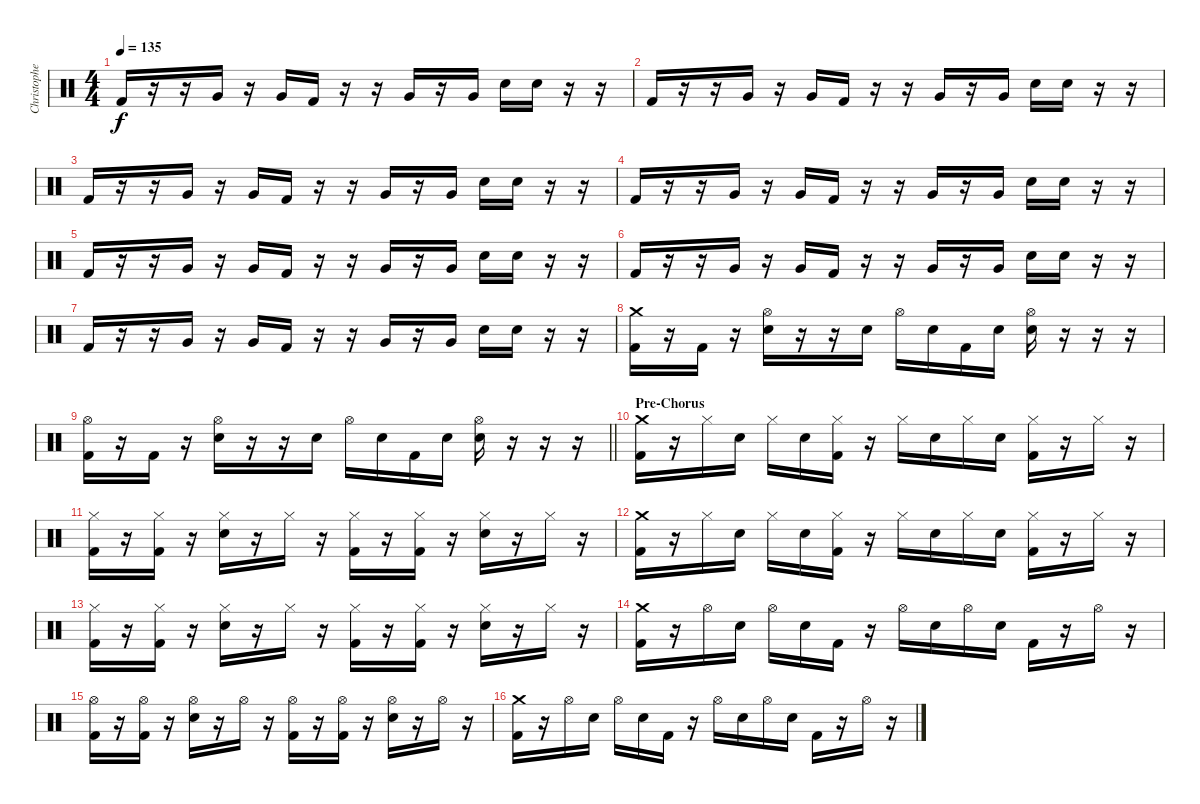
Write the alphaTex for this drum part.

\track ("Christopher - Drums" "Christophe") {instrument percussion}
\staff {score}
\articulation defaults
\ts (4 4)
\tempo 135
\clef neutral
\ks c "Kick (hit) 2".16{dy f}
r.16 r.16 "Very Low Tom (hit)".16 r.16 "Very Low Tom (hit)".16 "Kick (hit) 2".16 r.16 r.16 "Very Low Tom (hit)".16 r.16 "Very Low Tom (hit)".16 "Electric Snare (hit)".16 "Electric Snare (hit)".16 r.16 r.16 |
"Kick (hit) 2".16 r.16 r.16 "Very Low Tom (hit)".16 r.16 "Very Low Tom (hit)".16 "Kick (hit) 2".16 r.16 r.16 "Very Low Tom (hit)".16 r.16 "Very Low Tom (hit)".16 "Electric Snare (hit)".16 "Electric Snare (hit)".16 r.16 r.16 |
"Kick (hit) 2".16 r.16 r.16 "Very Low Tom (hit)".16 r.16 "Very Low Tom (hit)".16 "Kick (hit) 2".16 r.16 r.16 "Very Low Tom (hit)".16 r.16 "Very Low Tom (hit)".16 "Electric Snare (hit)".16 "Electric Snare (hit)".16 r.16 r.16 |
"Kick (hit) 2".16 r.16 r.16 "Very Low Tom (hit)".16 r.16 "Very Low Tom (hit)".16 "Kick (hit) 2".16 r.16 r.16 "Very Low Tom (hit)".16 r.16 "Very Low Tom (hit)".16 "Electric Snare (hit)".16 "Electric Snare (hit)".16 r.16 r.16 |
"Kick (hit) 2".16 r.16 r.16 "Very Low Tom (hit)".16 r.16 "Very Low Tom (hit)".16 "Kick (hit) 2".16 r.16 r.16 "Very Low Tom (hit)".16 r.16 "Very Low Tom (hit)".16 "Electric Snare (hit)".16 "Electric Snare (hit)".16 r.16 r.16 |
"Kick (hit) 2".16 r.16 r.16 "Very Low Tom (hit)".16 r.16 "Very Low Tom (hit)".16 "Kick (hit) 2".16 r.16 r.16 "Very Low Tom (hit)".16 r.16 "Very Low Tom (hit)".16 "Electric Snare (hit)".16 "Electric Snare (hit)".16 r.16 r.16 |
"Kick (hit) 2".16 r.16 r.16 "Very Low Tom (hit)".16 r.16 "Very Low Tom (hit)".16 "Kick (hit) 2".16 r.16 r.16 "Very Low Tom (hit)".16 r.16 "Very Low Tom (hit)".16 "Electric Snare (hit)".16 "Electric Snare (hit)".16 r.16 r.16 |
("Crash medium (hit)" "Kick (hit) 2").16 r.16 "Kick (hit) 2".16 r.16 ("Hi-Hat (open)" "Electric Snare (hit)").16 r.16 r.16 "Electric Snare (hit)".16 "Hi-Hat (open)".16 "Electric Snare (hit)".16 "Kick (hit) 2".16 "Electric Snare (hit)".16 ("Hi-Hat (open)" "Electric Snare (hit)").16 r.16 r.16 r.16 |
\barLineRight lightlight
("Hi-Hat (open)" "Kick (hit) 2").16 r.16 "Kick (hit) 2".16 r.16 ("Hi-Hat (open)" "Electric Snare (hit)").16 r.16 r.16 "Electric Snare (hit)".16 "Hi-Hat (open)".16 "Electric Snare (hit)".16 "Kick (hit) 2".16 "Electric Snare (hit)".16 ("Hi-Hat (open)" "Electric Snare (hit)").16 r.16 r.16 r.16 |
\section ("" "Pre-Chorus")
("Crash medium (hit)" "Kick (hit) 2").16 r.16 "Hi-Hat (closed)".16 "Electric Snare (hit)".16 "Hi-Hat (closed)".16 "Electric Snare (hit)".16 ("Hi-Hat (closed)" "Kick (hit) 2").16 r.16 "Hi-Hat (closed)".16 "Electric Snare (hit)".16 "Hi-Hat (closed)".16 "Electric Snare (hit)".16 ("Hi-Hat (closed)" "Kick (hit) 2").16 r.16 "Hi-Hat (closed)".16 r.16 |
("Hi-Hat (closed)" "Kick (hit) 2").16 r.16 ("Hi-Hat (closed)" "Kick (hit) 2").16 r.16 ("Hi-Hat (closed)" "Electric Snare (hit)").16 r.16 "Hi-Hat (closed)".16 r.16 ("Hi-Hat (closed)" "Kick (hit) 2").16 r.16 ("Hi-Hat (closed)" "Kick (hit) 2").16 r.16 ("Hi-Hat (closed)" "Electric Snare (hit)").16 r.16 "Hi-Hat (closed)".16 r.16 |
("Crash medium (hit)" "Kick (hit) 2").16 r.16 "Hi-Hat (closed)".16 "Electric Snare (hit)".16 "Hi-Hat (closed)".16 "Electric Snare (hit)".16 ("Hi-Hat (closed)" "Kick (hit) 2").16 r.16 "Hi-Hat (closed)".16 "Electric Snare (hit)".16 "Hi-Hat (closed)".16 "Electric Snare (hit)".16 ("Hi-Hat (closed)" "Kick (hit) 2").16 r.16 "Hi-Hat (closed)".16 r.16 |
("Hi-Hat (closed)" "Kick (hit) 2").16 r.16 ("Hi-Hat (closed)" "Kick (hit) 2").16 r.16 ("Hi-Hat (closed)" "Electric Snare (hit)").16 r.16 "Hi-Hat (closed)".16 r.16 ("Hi-Hat (closed)" "Kick (hit) 2").16 r.16 ("Hi-Hat (closed)" "Kick (hit) 2").16 r.16 ("Hi-Hat (closed)" "Electric Snare (hit)").16 r.16 "Hi-Hat (closed)".16 r.16 |
("Crash medium (hit)" "Kick (hit) 2").16 r.16 "Hi-Hat (open)".16 "Electric Snare (hit)".16 "Hi-Hat (open)".16 "Electric Snare (hit)".16 "Kick (hit) 2".16 r.16 "Hi-Hat (open)".16 "Electric Snare (hit)".16 "Hi-Hat (open)".16 "Electric Snare (hit)".16 "Kick (hit) 2".16 r.16 "Hi-Hat (open)".16 r.16 |
("Hi-Hat (open)" "Kick (hit) 2").16 r.16 ("Hi-Hat (open)" "Kick (hit) 2").16 r.16 ("Hi-Hat (open)" "Electric Snare (hit)").16 r.16 "Hi-Hat (open)".16 r.16 ("Hi-Hat (open)" "Kick (hit) 2").16 r.16 ("Hi-Hat (open)" "Kick (hit) 2").16 r.16 ("Hi-Hat (open)" "Electric Snare (hit)").16 r.16 "Hi-Hat (open)".16 r.16 |
("Crash medium (hit)" "Kick (hit) 2").16 r.16 "Hi-Hat (open)".16 "Electric Snare (hit)".16 "Hi-Hat (open)".16 "Electric Snare (hit)".16 "Kick (hit) 2".16 r.16 "Hi-Hat (open)".16 "Electric Snare (hit)".16 "Hi-Hat (open)".16 "Electric Snare (hit)".16 "Kick (hit) 2".16 r.16 "Hi-Hat (open)".16 r.16
